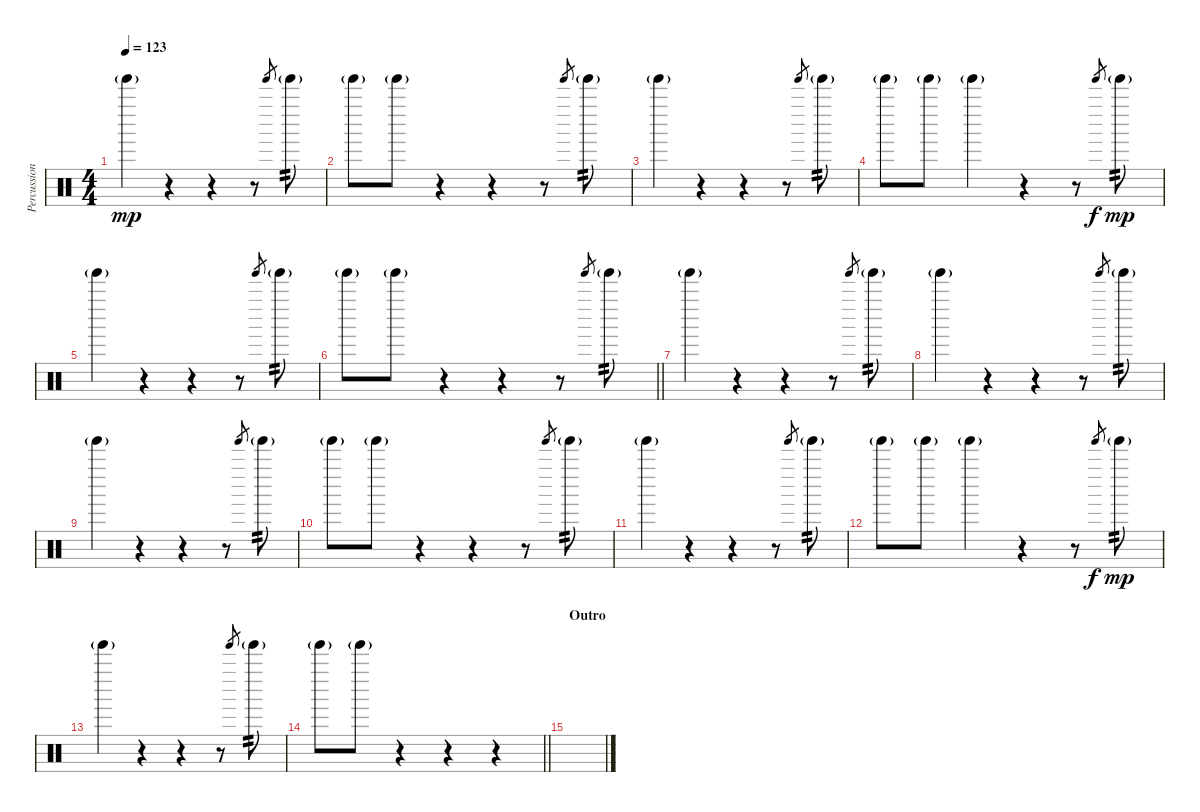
\track ("Percussions" "Percussion") {instrument percussion}
\staff {score}
\articulation defaults
\ts (4 4)
\tempo 123
\clef neutral
\ks c "Tinkle Bell (hit)"{g}.4{dy mp}
r.4 r.4 r.8 "Tinkle Bell (hit)".8{gr} "Tinkle Bell (hit)"{g}.8{tp 2} |
"Tinkle Bell (hit)"{g}.8 "Tinkle Bell (hit)"{g}.8 r.4 r.4 r.8 "Tinkle Bell (hit)".8{gr} "Tinkle Bell (hit)"{g}.8{tp 2} |
"Tinkle Bell (hit)"{g}.4 r.4 r.4 r.8 "Tinkle Bell (hit)".8{gr} "Tinkle Bell (hit)"{g}.8{tp 2} |
"Tinkle Bell (hit)"{g}.8 "Tinkle Bell (hit)"{g}.8 "Tinkle Bell (hit)"{g}.4 r.4 r.8 "Tinkle Bell (hit)".8{gr dy f} "Tinkle Bell (hit)"{g}.8{tp 2 dy mp} |
"Tinkle Bell (hit)"{g}.4 r.4 r.4 r.8 "Tinkle Bell (hit)".8{gr} "Tinkle Bell (hit)"{g}.8{tp 2} |
\barLineRight lightlight "Tinkle Bell (hit)"{g}.8 "Tinkle Bell (hit)"{g}.8
r.4 r.4 r.8 "Tinkle Bell (hit)".8{gr} "Tinkle Bell (hit)"{g}.8{tp 2} |
\section ("" "")
"Tinkle Bell (hit)"{g}.4 r.4 r.4 r.8 "Tinkle Bell (hit)".8{gr} "Tinkle Bell (hit)"{g}.8{tp 2} |
"Tinkle Bell (hit)"{g}.4 r.4 r.4 r.8 "Tinkle Bell (hit)".8{gr} "Tinkle Bell (hit)"{g}.8{tp 2} |
"Tinkle Bell (hit)"{g}.4 r.4 r.4 r.8 "Tinkle Bell (hit)".8{gr} "Tinkle Bell (hit)"{g}.8{tp 2} |
"Tinkle Bell (hit)"{g}.8 "Tinkle Bell (hit)"{g}.8 r.4 r.4 r.8 "Tinkle Bell (hit)".8{gr} "Tinkle Bell (hit)"{g}.8{tp 2} |
"Tinkle Bell (hit)"{g}.4 r.4 r.4 r.8 "Tinkle Bell (hit)".8{gr} "Tinkle Bell (hit)"{g}.8{tp 2} |
"Tinkle Bell (hit)"{g}.8 "Tinkle Bell (hit)"{g}.8 "Tinkle Bell (hit)"{g}.4 r.4 r.8 "Tinkle Bell (hit)".8{gr dy f} "Tinkle Bell (hit)"{g}.8{tp 2 dy mp} |
"Tinkle Bell (hit)"{g}.4 r.4 r.4 r.8 "Tinkle Bell (hit)".8{gr} "Tinkle Bell (hit)"{g}.8{tp 2} |
\barLineRight lightlight "Tinkle Bell (hit)"{g}.8 "Tinkle Bell (hit)"{g}.8
r.4 r.4 r.4 |
\section ("" "Outro")
